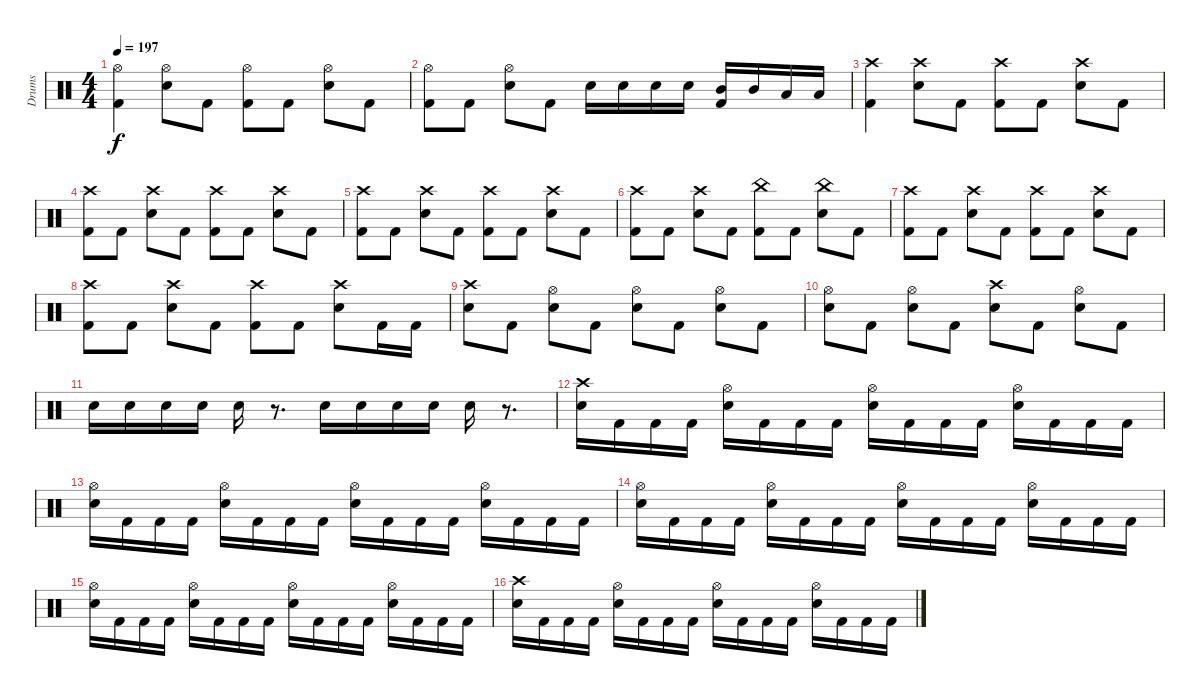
\track ("Drums" "Drums") {instrument percussion}
\staff {score}
\articulation defaults
\ts (4 4)
\tempo 197
\clef neutral
\ks c
("Hi-Hat (open)" "Kick (hit) 2").4{dy f} ("Hi-Hat (open)" "Electric Snare (hit)").8 "Kick (hit) 2".8 ("Hi-Hat (open)" "Kick (hit) 2").8 "Kick (hit) 2".8 ("Hi-Hat (open)" "Electric Snare (hit)").8 "Kick (hit) 2".8 |
("Hi-Hat (open)" "Kick (hit) 2").8 "Kick (hit) 2".8 ("Hi-Hat (open)" "Electric Snare (hit)").8 "Kick (hit) 2".8 "Electric Snare (hit)".16 "Electric Snare (hit)".16 "Electric Snare (hit)".16 "Electric Snare (hit)".16 ("Mid Tom (hit)" "Kick (hit) 2").16 "Mid Tom (hit)".16 "Low Tom (hit)".16 "Low Tom (hit)".16 |
("Crash high (hit)" "Kick (hit) 2").4 ("Crash high (hit)" "Electric Snare (hit)").8 "Kick (hit) 2".8 ("Crash high (hit)" "Kick (hit) 2").8 "Kick (hit) 2".8 ("Crash high (hit)" "Electric Snare (hit)").8 "Kick (hit) 2".8 |
("Crash high (hit)" "Kick (hit) 2").8 "Kick (hit) 2".8 ("Crash high (hit)" "Electric Snare (hit)").8 "Kick (hit) 2".8 ("Crash high (hit)" "Kick (hit) 2").8 "Kick (hit) 2".8 ("Crash high (hit)" "Electric Snare (hit)").8 "Kick (hit) 2".8 |
("Crash high (hit)" "Kick (hit) 2").8 "Kick (hit) 2".8 ("Crash high (hit)" "Electric Snare (hit)").8 "Kick (hit) 2".8 ("Crash high (hit)" "Kick (hit) 2").8 "Kick (hit) 2".8 ("Crash high (hit)" "Electric Snare (hit)").8 "Kick (hit) 2".8 |
("Crash high (hit)" "Kick (hit) 2").8 "Kick (hit) 2".8 ("Crash high (hit)" "Electric Snare (hit)").8 "Kick (hit) 2".8 ("China (hit)" "Kick (hit) 2").8 "Kick (hit) 2".8 ("China (hit)" "Electric Snare (hit)").8 "Kick (hit) 2".8 |
("Crash high (hit)" "Kick (hit) 2").8 "Kick (hit) 2".8 ("Crash high (hit)" "Electric Snare (hit)").8 "Kick (hit) 2".8 ("Crash high (hit)" "Kick (hit) 2").8 "Kick (hit) 2".8 ("Crash high (hit)" "Electric Snare (hit)").8 "Kick (hit) 2".8 |
("Crash high (hit)" "Kick (hit) 2").8 "Kick (hit) 2".8 ("Crash high (hit)" "Electric Snare (hit)").8 "Kick (hit) 2".8 ("Crash high (hit)" "Kick (hit) 2").8 "Kick (hit) 2".8 ("Crash high (hit)" "Electric Snare (hit)").8 "Kick (hit) 2".16 "Kick (hit) 2".16 |
("Crash high (hit)" "Electric Snare (hit)").8 "Kick (hit) 2".8 ("Hi-Hat (open)" "Electric Snare (hit)").8 "Kick (hit) 2".8 ("Hi-Hat (open)" "Electric Snare (hit)").8 "Kick (hit) 2".8 ("Hi-Hat (open)" "Electric Snare (hit)").8 "Kick (hit) 2".8 |
("Hi-Hat (open)" "Electric Snare (hit)").8 "Kick (hit) 2".8 ("Hi-Hat (open)" "Electric Snare (hit)").8 "Kick (hit) 2".8 ("Crash high (hit)" "Electric Snare (hit)").8 "Kick (hit) 2".8 ("Hi-Hat (open)" "Electric Snare (hit)").8 "Kick (hit) 2".8 |
"Electric Snare (hit)".16 "Electric Snare (hit)".16 "Electric Snare (hit)".16 "Electric Snare (hit)".16 "Electric Snare (hit)".16 r.8{d} "Electric Snare (hit)".16 "Electric Snare (hit)".16 "Electric Snare (hit)".16 "Electric Snare (hit)".16 "Electric Snare (hit)".16 r.8{d} |
("Crash high (hit)" "Electric Snare (hit)").16 "Kick (hit) 2".16 "Kick (hit) 2".16 "Kick (hit) 2".16 ("Hi-Hat (open)" "Electric Snare (hit)").16 "Kick (hit) 2".16 "Kick (hit) 2".16 "Kick (hit) 2".16 ("Hi-Hat (open)" "Electric Snare (hit)").16 "Kick (hit) 2".16 "Kick (hit) 2".16 "Kick (hit) 2".16 ("Hi-Hat (open)" "Electric Snare (hit)").16 "Kick (hit) 2".16 "Kick (hit) 2".16 "Kick (hit) 2".16 |
("Hi-Hat (open)" "Electric Snare (hit)").16 "Kick (hit) 2".16 "Kick (hit) 2".16 "Kick (hit) 2".16 ("Hi-Hat (open)" "Electric Snare (hit)").16 "Kick (hit) 2".16 "Kick (hit) 2".16 "Kick (hit) 2".16 ("Hi-Hat (open)" "Electric Snare (hit)").16 "Kick (hit) 2".16 "Kick (hit) 2".16 "Kick (hit) 2".16 ("Hi-Hat (open)" "Electric Snare (hit)").16 "Kick (hit) 2".16 "Kick (hit) 2".16 "Kick (hit) 2".16 |
("Hi-Hat (open)" "Electric Snare (hit)").16 "Kick (hit) 2".16 "Kick (hit) 2".16 "Kick (hit) 2".16 ("Hi-Hat (open)" "Electric Snare (hit)").16 "Kick (hit) 2".16 "Kick (hit) 2".16 "Kick (hit) 2".16 ("Hi-Hat (open)" "Electric Snare (hit)").16 "Kick (hit) 2".16 "Kick (hit) 2".16 "Kick (hit) 2".16 ("Hi-Hat (open)" "Electric Snare (hit)").16 "Kick (hit) 2".16 "Kick (hit) 2".16 "Kick (hit) 2".16 |
("Hi-Hat (open)" "Electric Snare (hit)").16 "Kick (hit) 2".16 "Kick (hit) 2".16 "Kick (hit) 2".16 ("Hi-Hat (open)" "Electric Snare (hit)").16 "Kick (hit) 2".16 "Kick (hit) 2".16 "Kick (hit) 2".16 ("Hi-Hat (open)" "Electric Snare (hit)").16 "Kick (hit) 2".16 "Kick (hit) 2".16 "Kick (hit) 2".16 ("Hi-Hat (open)" "Electric Snare (hit)").16 "Kick (hit) 2".16 "Kick (hit) 2".16 "Kick (hit) 2".16 |
("Crash high (hit)" "Electric Snare (hit)").16 "Kick (hit) 2".16 "Kick (hit) 2".16 "Kick (hit) 2".16 ("Hi-Hat (open)" "Electric Snare (hit)").16 "Kick (hit) 2".16 "Kick (hit) 2".16 "Kick (hit) 2".16 ("Hi-Hat (open)" "Electric Snare (hit)").16 "Kick (hit) 2".16 "Kick (hit) 2".16 "Kick (hit) 2".16 ("Hi-Hat (open)" "Electric Snare (hit)").16 "Kick (hit) 2".16 "Kick (hit) 2".16 "Kick (hit) 2".16
